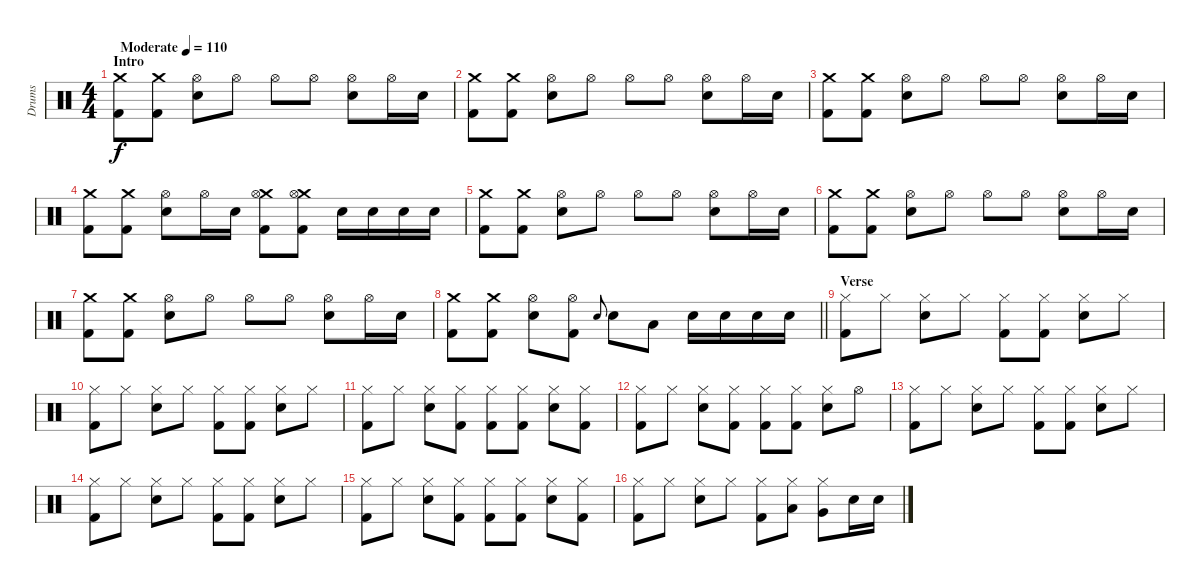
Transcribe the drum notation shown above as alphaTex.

\track ("Drums" "Drums") {instrument percussion}
\staff {score}
\articulation defaults
\ts (4 4)
\section ("" "Intro")
\tempo (110 "Moderate")
\clef neutral
\ks c
("Crash medium (hit)" "Kick (hit) 2").8{dy f} ("Crash medium (hit)" "Kick (hit) 2").8 ("Hi-Hat (open)" "Electric Snare (hit)").8 "Hi-Hat (open)".8 "Hi-Hat (open)".8 "Hi-Hat (open)".8 ("Hi-Hat (open)" "Electric Snare (hit)").8 "Hi-Hat (open)".16 "Electric Snare (hit)".16 |
("Crash medium (hit)" "Kick (hit) 2").8 ("Crash medium (hit)" "Kick (hit) 2").8 ("Hi-Hat (open)" "Electric Snare (hit)").8 "Hi-Hat (open)".8 "Hi-Hat (open)".8 "Hi-Hat (open)".8 ("Hi-Hat (open)" "Electric Snare (hit)").8 "Hi-Hat (open)".16 "Electric Snare (hit)".16 |
("Crash medium (hit)" "Kick (hit) 2").8 ("Crash medium (hit)" "Kick (hit) 2").8 ("Hi-Hat (open)" "Electric Snare (hit)").8 "Hi-Hat (open)".8 "Hi-Hat (open)".8 "Hi-Hat (open)".8 ("Hi-Hat (open)" "Electric Snare (hit)").8 "Hi-Hat (open)".16 "Electric Snare (hit)".16 |
("Crash medium (hit)" "Kick (hit) 2").8 ("Crash medium (hit)" "Kick (hit) 2").8 ("Hi-Hat (open)" "Electric Snare (hit)").8 "Hi-Hat (open)".16 "Electric Snare (hit)".16 ("Crash medium (hit)" "Hi-Hat (open)" "Kick (hit) 2").8 ("Crash medium (hit)" "Hi-Hat (open)" "Kick (hit) 2").8 "Electric Snare (hit)".16 "Electric Snare (hit)".16 "Electric Snare (hit)".16 "Electric Snare (hit)".16 |
("Crash medium (hit)" "Kick (hit) 2").8 ("Crash medium (hit)" "Kick (hit) 2").8 ("Hi-Hat (open)" "Electric Snare (hit)").8 "Hi-Hat (open)".8 "Hi-Hat (open)".8 "Hi-Hat (open)".8 ("Hi-Hat (open)" "Electric Snare (hit)").8 "Hi-Hat (open)".16 "Electric Snare (hit)".16 |
("Crash medium (hit)" "Kick (hit) 2").8 ("Crash medium (hit)" "Kick (hit) 2").8 ("Hi-Hat (open)" "Electric Snare (hit)").8 "Hi-Hat (open)".8 "Hi-Hat (open)".8 "Hi-Hat (open)".8 ("Hi-Hat (open)" "Electric Snare (hit)").8 "Hi-Hat (open)".16 "Electric Snare (hit)".16 |
("Crash medium (hit)" "Kick (hit) 2").8 ("Crash medium (hit)" "Kick (hit) 2").8 ("Hi-Hat (open)" "Electric Snare (hit)").8 "Hi-Hat (open)".8 "Hi-Hat (open)".8 "Hi-Hat (open)".8 ("Hi-Hat (open)" "Electric Snare (hit)").8 "Hi-Hat (open)".16 "Electric Snare (hit)".16 |
\barLineRight lightlight
("Crash medium (hit)" "Kick (hit) 2").8 ("Crash medium (hit)" "Kick (hit) 2").8 ("Hi-Hat (open)" "Electric Snare (hit)").8 ("Hi-Hat (open)" "Kick (hit) 2").8 "Electric Snare (hit)".8{gr onbeat} "Electric Snare (hit)".8 "Low Tom (hit)".8 "Electric Snare (hit)".16 "Electric Snare (hit)".16 "Electric Snare (hit)".16 "Electric Snare (hit)".16 |
\section ("" "Verse")
("Hi-Hat (closed)" "Kick (hit) 2").8 "Hi-Hat (closed)".8 ("Hi-Hat (closed)" "Electric Snare (hit)").8 "Hi-Hat (closed)".8 ("Hi-Hat (closed)" "Kick (hit) 2").8 ("Hi-Hat (closed)" "Kick (hit) 2").8 ("Hi-Hat (closed)" "Electric Snare (hit)").8 "Hi-Hat (closed)".8 |
("Hi-Hat (closed)" "Kick (hit) 2").8 "Hi-Hat (closed)".8 ("Hi-Hat (closed)" "Electric Snare (hit)").8 "Hi-Hat (closed)".8 ("Hi-Hat (closed)" "Kick (hit) 2").8 ("Hi-Hat (closed)" "Kick (hit) 2").8 ("Hi-Hat (closed)" "Electric Snare (hit)").8 "Hi-Hat (closed)".8 |
("Hi-Hat (closed)" "Kick (hit) 2").8 "Hi-Hat (closed)".8 ("Hi-Hat (closed)" "Electric Snare (hit)").8 ("Hi-Hat (closed)" "Kick (hit) 2").8 ("Hi-Hat (closed)" "Kick (hit) 2").8 ("Hi-Hat (closed)" "Kick (hit) 2").8 ("Hi-Hat (closed)" "Electric Snare (hit)").8 ("Hi-Hat (closed)" "Kick (hit) 2").8 |
("Hi-Hat (closed)" "Kick (hit) 2").8 "Hi-Hat (closed)".8 ("Hi-Hat (closed)" "Electric Snare (hit)").8 ("Hi-Hat (closed)" "Kick (hit) 2").8 ("Hi-Hat (closed)" "Kick (hit) 2").8 ("Hi-Hat (closed)" "Kick (hit) 2").8 ("Hi-Hat (closed)" "Electric Snare (hit)").8 "Hi-Hat (open)".8 |
("Hi-Hat (closed)" "Kick (hit) 2").8 "Hi-Hat (closed)".8 ("Hi-Hat (closed)" "Electric Snare (hit)").8 "Hi-Hat (closed)".8 ("Hi-Hat (closed)" "Kick (hit) 2").8 ("Hi-Hat (closed)" "Kick (hit) 2").8 ("Hi-Hat (closed)" "Electric Snare (hit)").8 "Hi-Hat (closed)".8 |
("Hi-Hat (closed)" "Kick (hit) 2").8 "Hi-Hat (closed)".8 ("Hi-Hat (closed)" "Electric Snare (hit)").8 "Hi-Hat (closed)".8 ("Hi-Hat (closed)" "Kick (hit) 2").8 ("Hi-Hat (closed)" "Kick (hit) 2").8 ("Hi-Hat (closed)" "Electric Snare (hit)").8 "Hi-Hat (closed)".8 |
("Hi-Hat (closed)" "Kick (hit) 2").8 "Hi-Hat (closed)".8 ("Hi-Hat (closed)" "Electric Snare (hit)").8 ("Hi-Hat (closed)" "Kick (hit) 2").8 ("Hi-Hat (closed)" "Kick (hit) 2").8 ("Hi-Hat (closed)" "Kick (hit) 2").8 ("Hi-Hat (closed)" "Electric Snare (hit)").8 ("Hi-Hat (closed)" "Kick (hit) 2").8 |
("Hi-Hat (closed)" "Kick (hit) 2").8 "Hi-Hat (closed)".8 ("Hi-Hat (closed)" "Electric Snare (hit)").8 "Hi-Hat (closed)".8 ("Hi-Hat (closed)" "Kick (hit) 2").8 ("Hi-Hat (closed)" "Low Tom (hit)").8 ("Hi-Hat (closed)" "Very Low Tom (hit)").8 "Electric Snare (hit)".16 "Electric Snare (hit)".16
